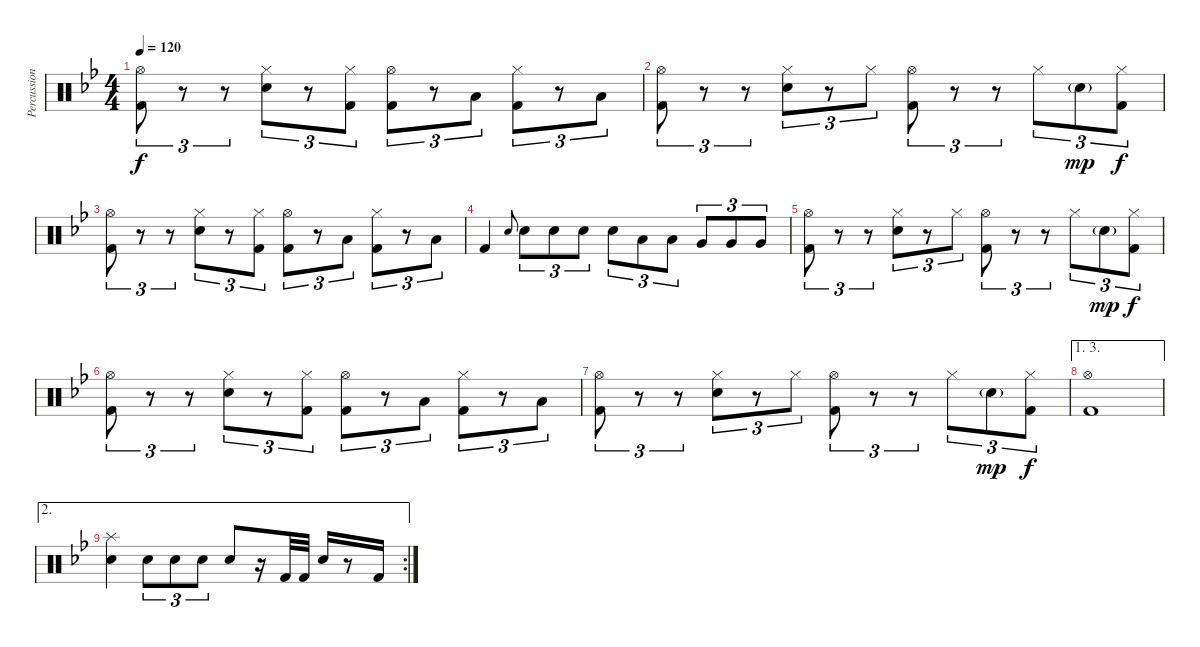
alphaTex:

\track ("Percussion" "Percussion") {instrument percussion}
\staff {score}
\articulation defaults
\ts (4 4)
\tempo 120
\clef neutral
\ks bb
("Hi-Hat (open)" "Kick (hit) 2").8{tu (3 2) dy f} r.8{tu (3 2)} r.8{tu (3 2)} ("Hi-Hat (closed)" "Electric Snare (hit)").8{tu (3 2)} r.8{tu (3 2)} ("Hi-Hat (closed)" "Kick (hit) 2").8{tu (3 2)} ("Hi-Hat (open)" "Kick (hit) 2").8{tu (3 2)} r.8{tu (3 2)} "Low Tom (hit)".8{tu (3 2)} ("Hi-Hat (closed)" "Kick (hit) 2").8{tu (3 2)} r.8{tu (3 2)} "Low Tom (hit)".8{tu (3 2)} |
("Hi-Hat (open)" "Kick (hit) 2").8{tu (3 2)} r.8{tu (3 2)} r.8{tu (3 2)} ("Hi-Hat (closed)" "Electric Snare (hit)").8{tu (3 2)} r.8{tu (3 2)} "Hi-Hat (closed)".8{tu (3 2)} ("Hi-Hat (open)" "Kick (hit) 2").8{tu (3 2)} r.8{tu (3 2)} r.8{tu (3 2)} "Hi-Hat (closed)".8{tu (3 2)} "Electric Snare (hit)"{g}.8{tu (3 2) dy mp} ("Hi-Hat (closed)" "Kick (hit) 2").8{tu (3 2) dy f} |
("Hi-Hat (open)" "Kick (hit) 2").8{tu (3 2)} r.8{tu (3 2)} r.8{tu (3 2)} ("Hi-Hat (closed)" "Electric Snare (hit)").8{tu (3 2)} r.8{tu (3 2)} ("Hi-Hat (closed)" "Kick (hit) 2").8{tu (3 2)} ("Hi-Hat (open)" "Kick (hit) 2").8{tu (3 2)} r.8{tu (3 2)} "Low Tom (hit)".8{tu (3 2)} ("Hi-Hat (closed)" "Kick (hit) 2").8{tu (3 2)} r.8{tu (3 2)} "Low Tom (hit)".8{tu (3 2)} |
"Kick (hit) 2".4 "Electric Snare (hit)".8{gr onbeat} "Electric Snare (hit)".8{tu (3 2)} "Electric Snare (hit)".8{tu (3 2)} "Electric Snare (hit)".8{tu (3 2)} "Electric Snare (hit)".8{tu (3 2)} "Low Tom (hit)".8{tu (3 2)} "Low Tom (hit)".8{tu (3 2)} "Very Low Tom (hit)".8{tu (3 2)} "Very Low Tom (hit)".8{tu (3 2)} "Very Low Tom (hit)".8{tu (3 2)} |
("Hi-Hat (open)" "Kick (hit) 2").8{tu (3 2)} r.8{tu (3 2)} r.8{tu (3 2)} ("Hi-Hat (closed)" "Electric Snare (hit)").8{tu (3 2)} r.8{tu (3 2)} "Hi-Hat (closed)".8{tu (3 2)} ("Hi-Hat (open)" "Kick (hit) 2").8{tu (3 2)} r.8{tu (3 2)} r.8{tu (3 2)} "Hi-Hat (closed)".8{tu (3 2)} "Electric Snare (hit)"{g}.8{tu (3 2) dy mp} ("Hi-Hat (closed)" "Kick (hit) 2").8{tu (3 2) dy f} |
("Hi-Hat (open)" "Kick (hit) 2").8{tu (3 2)} r.8{tu (3 2)} r.8{tu (3 2)} ("Hi-Hat (closed)" "Electric Snare (hit)").8{tu (3 2)} r.8{tu (3 2)} ("Hi-Hat (closed)" "Kick (hit) 2").8{tu (3 2)} ("Hi-Hat (open)" "Kick (hit) 2").8{tu (3 2)} r.8{tu (3 2)} "Low Tom (hit)".8{tu (3 2)} ("Hi-Hat (closed)" "Kick (hit) 2").8{tu (3 2)} r.8{tu (3 2)} "Low Tom (hit)".8{tu (3 2)} |
("Hi-Hat (open)" "Kick (hit) 2").8{tu (3 2)} r.8{tu (3 2)} r.8{tu (3 2)} ("Hi-Hat (closed)" "Electric Snare (hit)").8{tu (3 2)} r.8{tu (3 2)} "Hi-Hat (closed)".8{tu (3 2)} ("Hi-Hat (open)" "Kick (hit) 2").8{tu (3 2)} r.8{tu (3 2)} r.8{tu (3 2)} "Hi-Hat (closed)".8{tu (3 2)} "Electric Snare (hit)"{g}.8{tu (3 2) dy mp} ("Hi-Hat (closed)" "Kick (hit) 2").8{tu (3 2) dy f} |
\ae (1 3)
("Hi-Hat (open)" "Kick (hit) 2").1 |
\ae 2
\rc 2
("Splash (hit)" "Electric Snare (hit)").4 "Electric Snare (hit)".8{tu (3 2)} "Electric Snare (hit)".8{tu (3 2)} "Electric Snare (hit)".8{tu (3 2)} "Electric Snare (hit)".8 r.16 "Kick (hit) 2".32 "Kick (hit) 2".32 "Electric Snare (hit)".16 r.8 "Kick (hit) 2".16
